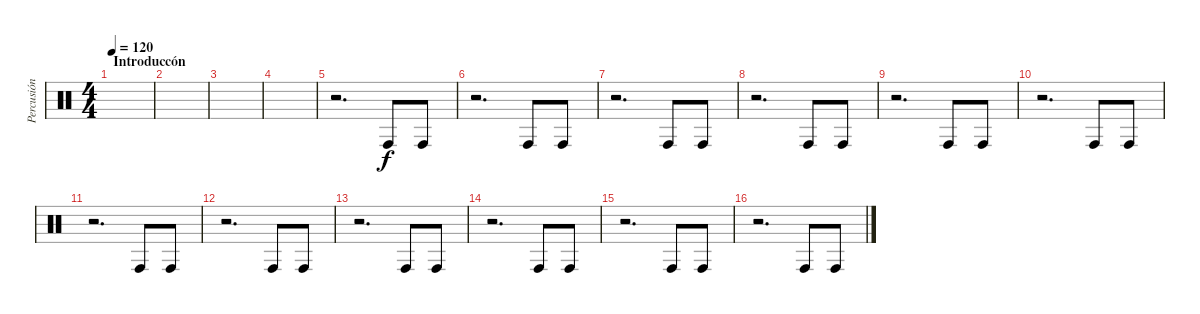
\track ("Percusión" "Percusión") {instrument percussion}
\staff {score}
\articulation defaults
\ts (4 4)
\section ("" "Introduccón")
\tempo 120
\clef neutral
\ks c
|
|
|
|
r.2{d} "Conga high (hit)".8 "Conga high (hit)".8 |
r.2{d} "Conga high (hit)".8 "Conga high (hit)".8 |
r.2{d} "Conga high (hit)".8 "Conga high (hit)".8 |
r.2{d} "Conga high (hit)".8 "Conga high (hit)".8 |
r.2{d} "Conga high (hit)".8 "Conga high (hit)".8 |
r.2{d} "Conga high (hit)".8 "Conga high (hit)".8 |
r.2{d} "Conga high (hit)".8 "Conga high (hit)".8 |
r.2{d} "Conga high (hit)".8 "Conga high (hit)".8 |
r.2{d} "Conga high (hit)".8 "Conga high (hit)".8 |
r.2{d} "Conga high (hit)".8 "Conga high (hit)".8 |
r.2{d} "Conga high (hit)".8 "Conga high (hit)".8 |
r.2{d} "Conga high (hit)".8 "Conga high (hit)".8
